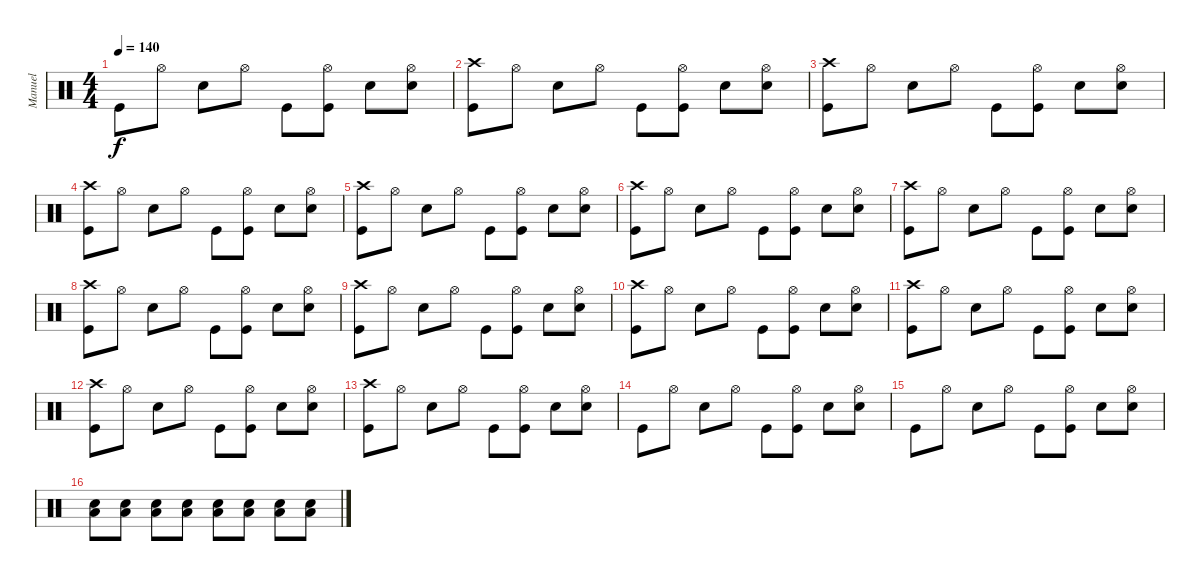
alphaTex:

\track ("Manuel" "Manuel") {instrument percussion}
\staff {score}
\articulation defaults
\ts (4 4)
\tempo 140
\clef neutral
\ks c "Kick (hit)".8{dy f} "Hi-Hat (open)".8 "Electric Snare (hit)".8 "Hi-Hat (open)".8 "Kick (hit)".8
("Kick (hit)" "Hi-Hat (open)").8 "Electric Snare (hit)".8 ("Electric Snare (hit)" "Hi-Hat (open)").8 |
("Crash high (hit)" "Kick (hit)").8 "Hi-Hat (open)".8 "Electric Snare (hit)".8 "Hi-Hat (open)".8 "Kick (hit)".8 ("Kick (hit)" "Hi-Hat (open)").8 "Electric Snare (hit)".8 ("Electric Snare (hit)" "Hi-Hat (open)").8 |
("Crash high (hit)" "Kick (hit)").8 "Hi-Hat (open)".8 "Electric Snare (hit)".8 "Hi-Hat (open)".8 "Kick (hit)".8 ("Kick (hit)" "Hi-Hat (open)").8 "Electric Snare (hit)".8 ("Electric Snare (hit)" "Hi-Hat (open)").8 |
("Crash high (hit)" "Kick (hit)").8 "Hi-Hat (open)".8 "Electric Snare (hit)".8 "Hi-Hat (open)".8 "Kick (hit)".8 ("Kick (hit)" "Hi-Hat (open)").8 "Electric Snare (hit)".8 ("Electric Snare (hit)" "Hi-Hat (open)").8 |
("Crash high (hit)" "Kick (hit)").8 "Hi-Hat (open)".8 "Electric Snare (hit)".8 "Hi-Hat (open)".8 "Kick (hit)".8 ("Kick (hit)" "Hi-Hat (open)").8 "Electric Snare (hit)".8 ("Electric Snare (hit)" "Hi-Hat (open)").8 |
("Crash high (hit)" "Kick (hit)").8 "Hi-Hat (open)".8 "Electric Snare (hit)".8 "Hi-Hat (open)".8 "Kick (hit)".8 ("Kick (hit)" "Hi-Hat (open)").8 "Electric Snare (hit)".8 ("Electric Snare (hit)" "Hi-Hat (open)").8 |
("Crash high (hit)" "Kick (hit)").8 "Hi-Hat (open)".8 "Electric Snare (hit)".8 "Hi-Hat (open)".8 "Kick (hit)".8 ("Kick (hit)" "Hi-Hat (open)").8 "Electric Snare (hit)".8 ("Electric Snare (hit)" "Hi-Hat (open)").8 |
("Crash high (hit)" "Kick (hit)").8 "Hi-Hat (open)".8 "Electric Snare (hit)".8 "Hi-Hat (open)".8 "Kick (hit)".8 ("Kick (hit)" "Hi-Hat (open)").8 "Electric Snare (hit)".8 ("Electric Snare (hit)" "Hi-Hat (open)").8 |
("Crash high (hit)" "Kick (hit)").8 "Hi-Hat (open)".8 "Electric Snare (hit)".8 "Hi-Hat (open)".8 "Kick (hit)".8 ("Kick (hit)" "Hi-Hat (open)").8 "Electric Snare (hit)".8 ("Electric Snare (hit)" "Hi-Hat (open)").8 |
("Crash high (hit)" "Kick (hit)").8 "Hi-Hat (open)".8 "Electric Snare (hit)".8 "Hi-Hat (open)".8 "Kick (hit)".8 ("Kick (hit)" "Hi-Hat (open)").8 "Electric Snare (hit)".8 ("Electric Snare (hit)" "Hi-Hat (open)").8 |
("Crash high (hit)" "Kick (hit)").8 "Hi-Hat (open)".8 "Electric Snare (hit)".8 "Hi-Hat (open)".8 "Kick (hit)".8 ("Kick (hit)" "Hi-Hat (open)").8 "Electric Snare (hit)".8 ("Electric Snare (hit)" "Hi-Hat (open)").8 |
("Crash high (hit)" "Kick (hit)").8 "Hi-Hat (open)".8 "Electric Snare (hit)".8 "Hi-Hat (open)".8 "Kick (hit)".8 ("Kick (hit)" "Hi-Hat (open)").8 "Electric Snare (hit)".8 ("Electric Snare (hit)" "Hi-Hat (open)").8 |
("Crash high (hit)" "Kick (hit)").8 "Hi-Hat (open)".8 "Electric Snare (hit)".8 "Hi-Hat (open)".8 "Kick (hit)".8 ("Kick (hit)" "Hi-Hat (open)").8 "Electric Snare (hit)".8 ("Electric Snare (hit)" "Hi-Hat (open)").8 |
"Kick (hit)".8 "Hi-Hat (open)".8 "Electric Snare (hit)".8 "Hi-Hat (open)".8 "Kick (hit)".8 ("Kick (hit)" "Hi-Hat (open)").8 "Electric Snare (hit)".8 ("Electric Snare (hit)" "Hi-Hat (open)").8 |
"Kick (hit)".8 "Hi-Hat (open)".8 "Electric Snare (hit)".8 "Hi-Hat (open)".8 "Kick (hit)".8 ("Kick (hit)" "Hi-Hat (open)").8 "Electric Snare (hit)".8 ("Electric Snare (hit)" "Hi-Hat (open)").8 |
("Low Tom (hit)" "Electric Snare (hit)").8 ("Low Tom (hit)" "Electric Snare (hit)").8 ("Low Tom (hit)" "Electric Snare (hit)").8 ("Low Tom (hit)" "Electric Snare (hit)").8 ("Low Tom (hit)" "Electric Snare (hit)").8 ("Low Tom (hit)" "Electric Snare (hit)").8 ("Low Tom (hit)" "Electric Snare (hit)").8 ("Low Tom (hit)" "Electric Snare (hit)").8
